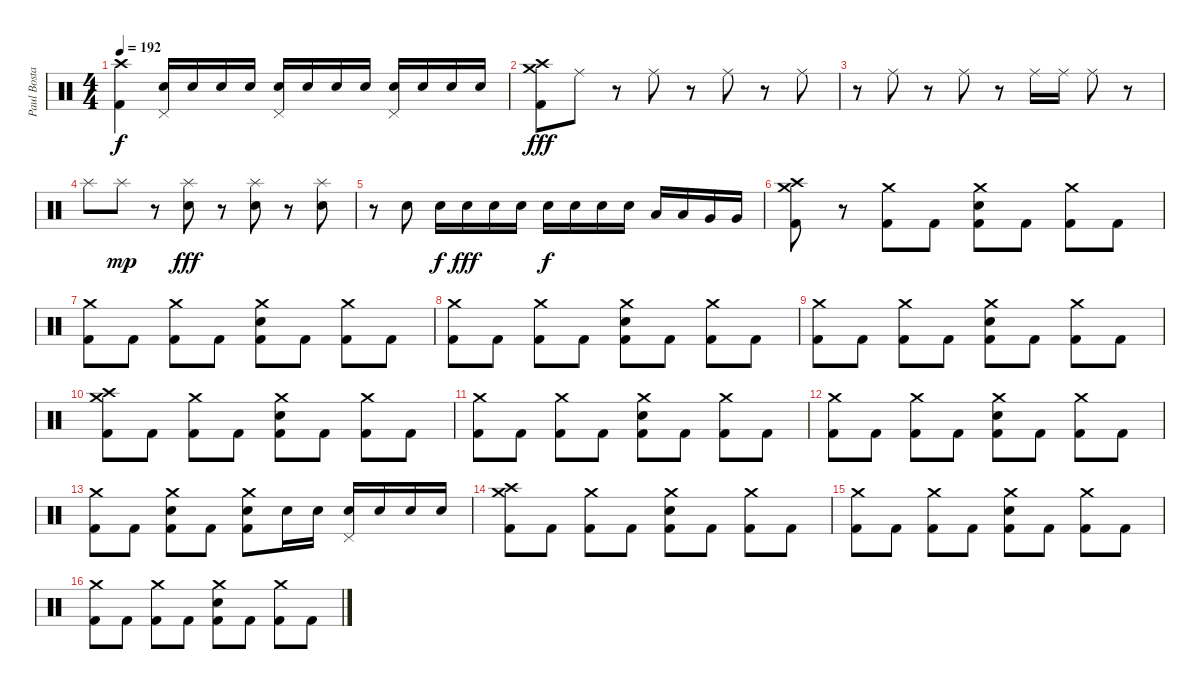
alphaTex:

\track ("Paul Bostaph" "Paul Bosta") {instrument percussion}
\staff {score}
\articulation defaults
\ts (4 4)
\tempo 192
\clef neutral
\ks c
("Crash high (hit)" "Kick (hit) 2").4{dy f} ("Pedal Hi-Hat (hit)" "Electric Snare (hit)").16 "Electric Snare (hit)".16 "Electric Snare (hit)".16 "Electric Snare (hit)".16 ("Pedal Hi-Hat (hit)" "Electric Snare (hit)").16 "Electric Snare (hit)".16 "Electric Snare (hit)".16 "Electric Snare (hit)".16 ("Pedal Hi-Hat (hit)" "Electric Snare (hit)").16 "Electric Snare (hit)".16 "Electric Snare (hit)".16 "Electric Snare (hit)".16 |
("Crash medium (hit)" "Crash high (hit)" "Kick (hit) 2").8{dy fff} "Ride (middle)".8 r.8 "Ride (middle)".8 r.8 "Ride (middle)".8 r.8 "Ride (middle)".8 |
r.8 "Ride (middle)".8 r.8 "Ride (middle)".8 r.8 "Ride (middle)".16 "Ride (middle)".16 "Ride (middle)".8 r.8 |
"Splash (hit)".8 "Splash (hit)".8{dy mp} r.8 ("Splash (hit)" "Electric Snare (hit)").8{dy fff} r.8 ("Splash (hit)" "Electric Snare (hit)").8 r.8 ("Splash (hit)" "Electric Snare (hit)").8 |
r.8 "Electric Snare (hit)".8 "Electric Snare (hit)".16{dy f} "Electric Snare (hit)".16{dy fff} "Electric Snare (hit)".16 "Electric Snare (hit)".16 "Electric Snare (hit)".16{dy f} "Electric Snare (hit)".16 "Electric Snare (hit)".16 "Electric Snare (hit)".16 "Low Tom (hit)".16 "Low Tom (hit)".16 "Very Low Tom (hit)".16 "Very Low Tom (hit)".16 |
("Crash medium (hit)" "Crash high (hit)" "Kick (hit) 2").8 r.8 ("Crash medium (hit)" "Kick (hit) 2").8 "Kick (hit) 2".8 ("Electric Snare (hit)" "Crash medium (hit)" "Kick (hit) 2").8 "Kick (hit) 2".8 ("Crash medium (hit)" "Kick (hit) 2").8 "Kick (hit) 2".8 |
("Crash medium (hit)" "Kick (hit) 2").8 "Kick (hit) 2".8 ("Crash medium (hit)" "Kick (hit) 2").8 "Kick (hit) 2".8 ("Electric Snare (hit)" "Crash medium (hit)" "Kick (hit) 2").8 "Kick (hit) 2".8 ("Crash medium (hit)" "Kick (hit) 2").8 "Kick (hit) 2".8 |
("Crash medium (hit)" "Kick (hit) 2").8 "Kick (hit) 2".8 ("Crash medium (hit)" "Kick (hit) 2").8 "Kick (hit) 2".8 ("Electric Snare (hit)" "Crash medium (hit)" "Kick (hit) 2").8 "Kick (hit) 2".8 ("Crash medium (hit)" "Kick (hit) 2").8 "Kick (hit) 2".8 |
("Crash medium (hit)" "Kick (hit) 2").8 "Kick (hit) 2".8 ("Crash medium (hit)" "Kick (hit) 2").8 "Kick (hit) 2".8 ("Electric Snare (hit)" "Crash medium (hit)" "Kick (hit) 2").8 "Kick (hit) 2".8 ("Crash medium (hit)" "Kick (hit) 2").8 "Kick (hit) 2".8 |
("Crash medium (hit)" "Crash high (hit)" "Kick (hit) 2").8 "Kick (hit) 2".8 ("Crash medium (hit)" "Kick (hit) 2").8 "Kick (hit) 2".8 ("Electric Snare (hit)" "Crash medium (hit)" "Kick (hit) 2").8 "Kick (hit) 2".8 ("Crash medium (hit)" "Kick (hit) 2").8 "Kick (hit) 2".8 |
("Crash medium (hit)" "Kick (hit) 2").8 "Kick (hit) 2".8 ("Crash medium (hit)" "Kick (hit) 2").8 "Kick (hit) 2".8 ("Electric Snare (hit)" "Crash medium (hit)" "Kick (hit) 2").8 "Kick (hit) 2".8 ("Crash medium (hit)" "Kick (hit) 2").8 "Kick (hit) 2".8 |
("Crash medium (hit)" "Kick (hit) 2").8 "Kick (hit) 2".8 ("Crash medium (hit)" "Kick (hit) 2").8 "Kick (hit) 2".8 ("Electric Snare (hit)" "Crash medium (hit)" "Kick (hit) 2").8 "Kick (hit) 2".8 ("Crash medium (hit)" "Kick (hit) 2").8 "Kick (hit) 2".8 |
("Crash medium (hit)" "Kick (hit) 2").8 "Kick (hit) 2".8 ("Electric Snare (hit)" "Crash medium (hit)" "Kick (hit) 2").8 "Kick (hit) 2".8 ("Electric Snare (hit)" "Crash medium (hit)" "Kick (hit) 2").8 "Electric Snare (hit)".16 "Electric Snare (hit)".16 ("Pedal Hi-Hat (hit)" "Electric Snare (hit)").16 "Electric Snare (hit)".16 "Electric Snare (hit)".16 "Electric Snare (hit)".16 |
("Crash medium (hit)" "Crash high (hit)" "Kick (hit) 2").8 "Kick (hit) 2".8 ("Crash medium (hit)" "Kick (hit) 2").8 "Kick (hit) 2".8 ("Electric Snare (hit)" "Crash medium (hit)" "Kick (hit) 2").8 "Kick (hit) 2".8 ("Crash medium (hit)" "Kick (hit) 2").8 "Kick (hit) 2".8 |
("Crash medium (hit)" "Kick (hit) 2").8 "Kick (hit) 2".8 ("Crash medium (hit)" "Kick (hit) 2").8 "Kick (hit) 2".8 ("Electric Snare (hit)" "Crash medium (hit)" "Kick (hit) 2").8 "Kick (hit) 2".8 ("Crash medium (hit)" "Kick (hit) 2").8 "Kick (hit) 2".8 |
("Crash medium (hit)" "Kick (hit) 2").8 "Kick (hit) 2".8 ("Crash medium (hit)" "Kick (hit) 2").8 "Kick (hit) 2".8 ("Electric Snare (hit)" "Crash medium (hit)" "Kick (hit) 2").8 "Kick (hit) 2".8 ("Crash medium (hit)" "Kick (hit) 2").8 "Kick (hit) 2".8
